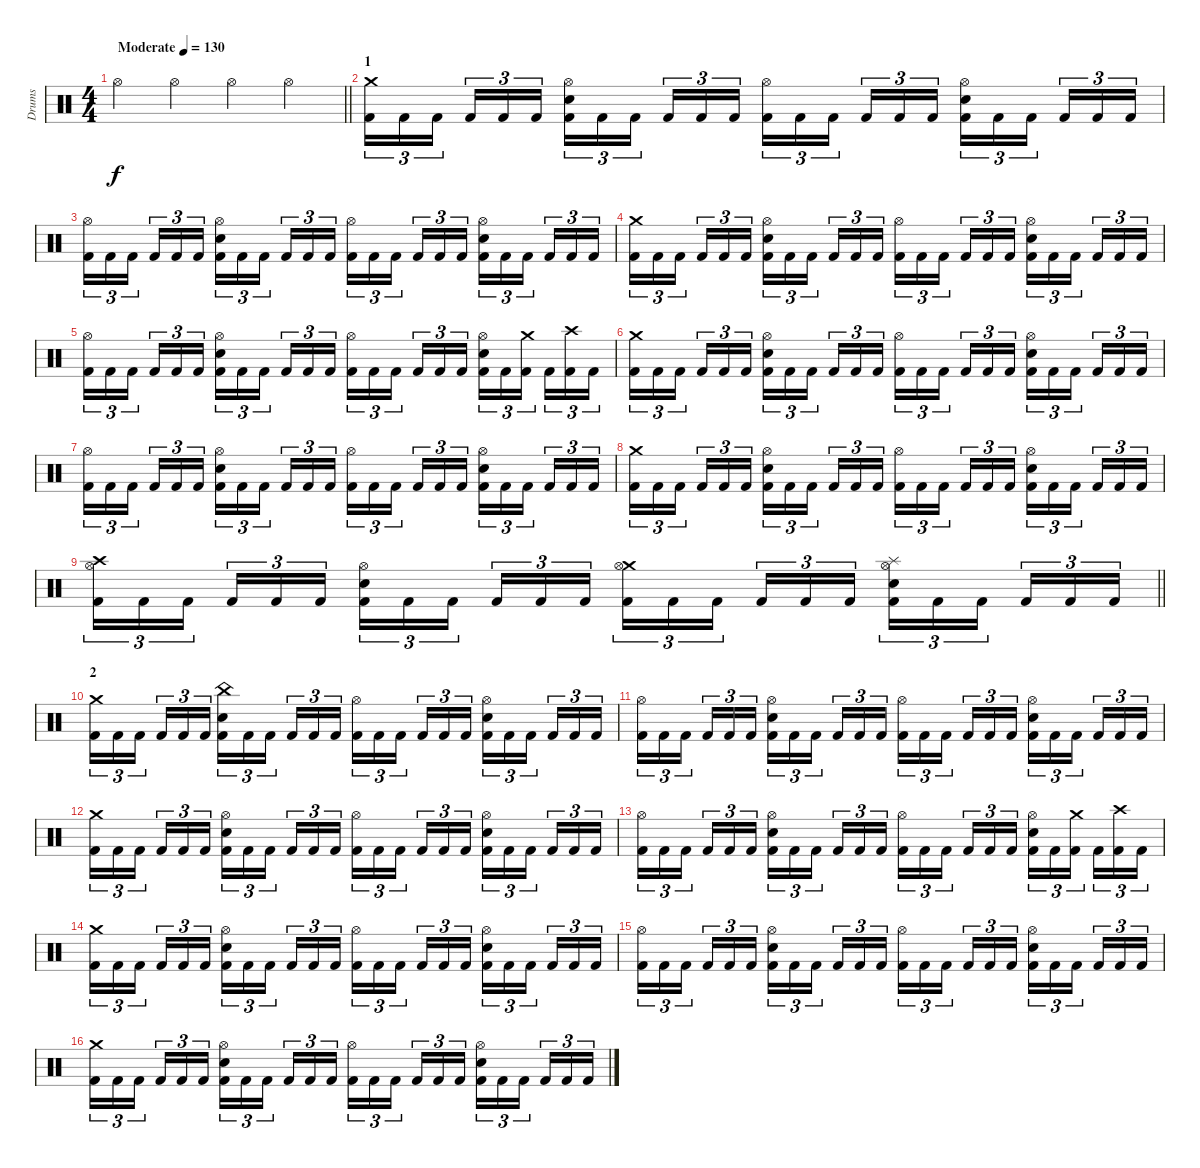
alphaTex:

\track ("Drums" "Drums") {instrument percussion}
\staff {score}
\articulation defaults
\ts (4 4)
\tempo (130 "Moderate")
\clef neutral
\barLineRight lightlight
\ks c "Hi-Hat (open)".4{dy f} "Hi-Hat (open)".4 "Hi-Hat (open)".4 "Hi-Hat (open)".4
|
\section ("" "1")
("Crash medium (hit)" "Kick (hit) 2").16{tu (3 2)} "Kick (hit) 2".16{tu (3 2)} "Kick (hit) 2".16{tu (3 2) beam splitsecondary} "Kick (hit) 2".16{tu (3 2)} "Kick (hit) 2".16{tu (3 2)} "Kick (hit) 2".16{tu (3 2)} ("Hi-Hat (open)" "Snare (hit) 2" "Kick (hit) 2").16{tu (3 2)} "Kick (hit) 2".16{tu (3 2)} "Kick (hit) 2".16{tu (3 2) beam splitsecondary} "Kick (hit) 2".16{tu (3 2)} "Kick (hit) 2".16{tu (3 2)} "Kick (hit) 2".16{tu (3 2)} ("Hi-Hat (open)" "Kick (hit) 2").16{tu (3 2)} "Kick (hit) 2".16{tu (3 2)} "Kick (hit) 2".16{tu (3 2) beam splitsecondary} "Kick (hit) 2".16{tu (3 2)} "Kick (hit) 2".16{tu (3 2)} "Kick (hit) 2".16{tu (3 2)} ("Hi-Hat (open)" "Snare (hit) 2" "Kick (hit) 2").16{tu (3 2)} "Kick (hit) 2".16{tu (3 2)} "Kick (hit) 2".16{tu (3 2) beam splitsecondary} "Kick (hit) 2".16{tu (3 2)} "Kick (hit) 2".16{tu (3 2)} "Kick (hit) 2".16{tu (3 2)} |
("Hi-Hat (open)" "Kick (hit) 2").16{tu (3 2)} "Kick (hit) 2".16{tu (3 2)} "Kick (hit) 2".16{tu (3 2) beam splitsecondary} "Kick (hit) 2".16{tu (3 2)} "Kick (hit) 2".16{tu (3 2)} "Kick (hit) 2".16{tu (3 2)} ("Hi-Hat (open)" "Snare (hit) 2" "Kick (hit) 2").16{tu (3 2)} "Kick (hit) 2".16{tu (3 2)} "Kick (hit) 2".16{tu (3 2) beam splitsecondary} "Kick (hit) 2".16{tu (3 2)} "Kick (hit) 2".16{tu (3 2)} "Kick (hit) 2".16{tu (3 2)} ("Hi-Hat (open)" "Kick (hit) 2").16{tu (3 2)} "Kick (hit) 2".16{tu (3 2)} "Kick (hit) 2".16{tu (3 2) beam splitsecondary} "Kick (hit) 2".16{tu (3 2)} "Kick (hit) 2".16{tu (3 2)} "Kick (hit) 2".16{tu (3 2)} ("Hi-Hat (open)" "Snare (hit) 2" "Kick (hit) 2").16{tu (3 2)} "Kick (hit) 2".16{tu (3 2)} "Kick (hit) 2".16{tu (3 2) beam splitsecondary} "Kick (hit) 2".16{tu (3 2)} "Kick (hit) 2".16{tu (3 2)} "Kick (hit) 2".16{tu (3 2)} |
("Crash medium (hit)" "Kick (hit) 2").16{tu (3 2)} "Kick (hit) 2".16{tu (3 2)} "Kick (hit) 2".16{tu (3 2) beam splitsecondary} "Kick (hit) 2".16{tu (3 2)} "Kick (hit) 2".16{tu (3 2)} "Kick (hit) 2".16{tu (3 2)} ("Hi-Hat (open)" "Snare (hit) 2" "Kick (hit) 2").16{tu (3 2)} "Kick (hit) 2".16{tu (3 2)} "Kick (hit) 2".16{tu (3 2) beam splitsecondary} "Kick (hit) 2".16{tu (3 2)} "Kick (hit) 2".16{tu (3 2)} "Kick (hit) 2".16{tu (3 2)} ("Hi-Hat (open)" "Kick (hit) 2").16{tu (3 2)} "Kick (hit) 2".16{tu (3 2)} "Kick (hit) 2".16{tu (3 2) beam splitsecondary} "Kick (hit) 2".16{tu (3 2)} "Kick (hit) 2".16{tu (3 2)} "Kick (hit) 2".16{tu (3 2)} ("Hi-Hat (open)" "Snare (hit) 2" "Kick (hit) 2").16{tu (3 2)} "Kick (hit) 2".16{tu (3 2)} "Kick (hit) 2".16{tu (3 2) beam splitsecondary} "Kick (hit) 2".16{tu (3 2)} "Kick (hit) 2".16{tu (3 2)} "Kick (hit) 2".16{tu (3 2)} |
("Hi-Hat (open)" "Kick (hit) 2").16{tu (3 2)} "Kick (hit) 2".16{tu (3 2)} "Kick (hit) 2".16{tu (3 2) beam splitsecondary} "Kick (hit) 2".16{tu (3 2)} "Kick (hit) 2".16{tu (3 2)} "Kick (hit) 2".16{tu (3 2)} ("Hi-Hat (open)" "Snare (hit) 2" "Kick (hit) 2").16{tu (3 2)} "Kick (hit) 2".16{tu (3 2)} "Kick (hit) 2".16{tu (3 2) beam splitsecondary} "Kick (hit) 2".16{tu (3 2)} "Kick (hit) 2".16{tu (3 2)} "Kick (hit) 2".16{tu (3 2)} ("Hi-Hat (open)" "Kick (hit) 2").16{tu (3 2)} "Kick (hit) 2".16{tu (3 2)} "Kick (hit) 2".16{tu (3 2) beam splitsecondary} "Kick (hit) 2".16{tu (3 2)} "Kick (hit) 2".16{tu (3 2)} "Kick (hit) 2".16{tu (3 2)} ("Hi-Hat (open)" "Snare (hit) 2" "Kick (hit) 2").16{tu (3 2)} "Kick (hit) 2".16{tu (3 2)} ("Crash medium (hit)" "Kick (hit) 2").16{tu (3 2) beam splitsecondary} "Kick (hit) 2".16{tu (3 2)} ("Crash high (hit)" "Kick (hit) 2").16{tu (3 2)} "Kick (hit) 2".16{tu (3 2)} |
("Crash medium (hit)" "Kick (hit) 2").16{tu (3 2)} "Kick (hit) 2".16{tu (3 2)} "Kick (hit) 2".16{tu (3 2) beam splitsecondary} "Kick (hit) 2".16{tu (3 2)} "Kick (hit) 2".16{tu (3 2)} "Kick (hit) 2".16{tu (3 2)} ("Hi-Hat (open)" "Snare (hit) 2" "Kick (hit) 2").16{tu (3 2)} "Kick (hit) 2".16{tu (3 2)} "Kick (hit) 2".16{tu (3 2) beam splitsecondary} "Kick (hit) 2".16{tu (3 2)} "Kick (hit) 2".16{tu (3 2)} "Kick (hit) 2".16{tu (3 2)} ("Hi-Hat (open)" "Kick (hit) 2").16{tu (3 2)} "Kick (hit) 2".16{tu (3 2)} "Kick (hit) 2".16{tu (3 2) beam splitsecondary} "Kick (hit) 2".16{tu (3 2)} "Kick (hit) 2".16{tu (3 2)} "Kick (hit) 2".16{tu (3 2)} ("Hi-Hat (open)" "Snare (hit) 2" "Kick (hit) 2").16{tu (3 2)} "Kick (hit) 2".16{tu (3 2)} "Kick (hit) 2".16{tu (3 2) beam splitsecondary} "Kick (hit) 2".16{tu (3 2)} "Kick (hit) 2".16{tu (3 2)} "Kick (hit) 2".16{tu (3 2)} |
("Hi-Hat (open)" "Kick (hit) 2").16{tu (3 2)} "Kick (hit) 2".16{tu (3 2)} "Kick (hit) 2".16{tu (3 2) beam splitsecondary} "Kick (hit) 2".16{tu (3 2)} "Kick (hit) 2".16{tu (3 2)} "Kick (hit) 2".16{tu (3 2)} ("Hi-Hat (open)" "Snare (hit) 2" "Kick (hit) 2").16{tu (3 2)} "Kick (hit) 2".16{tu (3 2)} "Kick (hit) 2".16{tu (3 2) beam splitsecondary} "Kick (hit) 2".16{tu (3 2)} "Kick (hit) 2".16{tu (3 2)} "Kick (hit) 2".16{tu (3 2)} ("Hi-Hat (open)" "Kick (hit) 2").16{tu (3 2)} "Kick (hit) 2".16{tu (3 2)} "Kick (hit) 2".16{tu (3 2) beam splitsecondary} "Kick (hit) 2".16{tu (3 2)} "Kick (hit) 2".16{tu (3 2)} "Kick (hit) 2".16{tu (3 2)} ("Hi-Hat (open)" "Snare (hit) 2" "Kick (hit) 2").16{tu (3 2)} "Kick (hit) 2".16{tu (3 2)} "Kick (hit) 2".16{tu (3 2) beam splitsecondary} "Kick (hit) 2".16{tu (3 2)} "Kick (hit) 2".16{tu (3 2)} "Kick (hit) 2".16{tu (3 2)} |
("Crash medium (hit)" "Kick (hit) 2").16{tu (3 2)} "Kick (hit) 2".16{tu (3 2)} "Kick (hit) 2".16{tu (3 2) beam splitsecondary} "Kick (hit) 2".16{tu (3 2)} "Kick (hit) 2".16{tu (3 2)} "Kick (hit) 2".16{tu (3 2)} ("Hi-Hat (open)" "Snare (hit) 2" "Kick (hit) 2").16{tu (3 2)} "Kick (hit) 2".16{tu (3 2)} "Kick (hit) 2".16{tu (3 2) beam splitsecondary} "Kick (hit) 2".16{tu (3 2)} "Kick (hit) 2".16{tu (3 2)} "Kick (hit) 2".16{tu (3 2)} ("Hi-Hat (open)" "Kick (hit) 2").16{tu (3 2)} "Kick (hit) 2".16{tu (3 2)} "Kick (hit) 2".16{tu (3 2) beam splitsecondary} "Kick (hit) 2".16{tu (3 2)} "Kick (hit) 2".16{tu (3 2)} "Kick (hit) 2".16{tu (3 2)} ("Hi-Hat (open)" "Snare (hit) 2" "Kick (hit) 2").16{tu (3 2)} "Kick (hit) 2".16{tu (3 2)} "Kick (hit) 2".16{tu (3 2) beam splitsecondary} "Kick (hit) 2".16{tu (3 2)} "Kick (hit) 2".16{tu (3 2)} "Kick (hit) 2".16{tu (3 2)} |
\barLineRight lightlight
("Crash high (hit)" "Hi-Hat (open)" "Kick (hit) 2").16{tu (3 2)} "Kick (hit) 2".16{tu (3 2)} "Kick (hit) 2".16{tu (3 2) beam splitsecondary} "Kick (hit) 2".16{tu (3 2)} "Kick (hit) 2".16{tu (3 2)} "Kick (hit) 2".16{tu (3 2)} ("Hi-Hat (open)" "Snare (hit) 2" "Kick (hit) 2").16{tu (3 2)} "Kick (hit) 2".16{tu (3 2)} "Kick (hit) 2".16{tu (3 2) beam splitsecondary} "Kick (hit) 2".16{tu (3 2)} "Kick (hit) 2".16{tu (3 2)} "Kick (hit) 2".16{tu (3 2)} ("Crash medium (hit)" "Hi-Hat (open)" "Kick (hit) 2").16{tu (3 2)} "Kick (hit) 2".16{tu (3 2)} "Kick (hit) 2".16{tu (3 2) beam splitsecondary} "Kick (hit) 2".16{tu (3 2)} "Kick (hit) 2".16{tu (3 2)} "Kick (hit) 2".16{tu (3 2)} ("Splash (hit)" "Hi-Hat (open)" "Snare (hit) 2" "Kick (hit) 2").16{tu (3 2)} "Kick (hit) 2".16{tu (3 2)} "Kick (hit) 2".16{tu (3 2) beam splitsecondary} "Kick (hit) 2".16{tu (3 2)} "Kick (hit) 2".16{tu (3 2)} "Kick (hit) 2".16{tu (3 2)} |
\section ("" "2")
("Crash medium (hit)" "Kick (hit) 2").16{tu (3 2)} "Kick (hit) 2".16{tu (3 2)} "Kick (hit) 2".16{tu (3 2) beam splitsecondary} "Kick (hit) 2".16{tu (3 2)} "Kick (hit) 2".16{tu (3 2)} "Kick (hit) 2".16{tu (3 2)} ("China (hit)" "Snare (hit) 2" "Kick (hit) 2").16{tu (3 2)} "Kick (hit) 2".16{tu (3 2)} "Kick (hit) 2".16{tu (3 2) beam splitsecondary} "Kick (hit) 2".16{tu (3 2)} "Kick (hit) 2".16{tu (3 2)} "Kick (hit) 2".16{tu (3 2)} ("Hi-Hat (open)" "Kick (hit) 2").16{tu (3 2)} "Kick (hit) 2".16{tu (3 2)} "Kick (hit) 2".16{tu (3 2) beam splitsecondary} "Kick (hit) 2".16{tu (3 2)} "Kick (hit) 2".16{tu (3 2)} "Kick (hit) 2".16{tu (3 2)} ("Hi-Hat (open)" "Snare (hit) 2" "Kick (hit) 2").16{tu (3 2)} "Kick (hit) 2".16{tu (3 2)} "Kick (hit) 2".16{tu (3 2) beam splitsecondary} "Kick (hit) 2".16{tu (3 2)} "Kick (hit) 2".16{tu (3 2)} "Kick (hit) 2".16{tu (3 2)} |
("Hi-Hat (open)" "Kick (hit) 2").16{tu (3 2)} "Kick (hit) 2".16{tu (3 2)} "Kick (hit) 2".16{tu (3 2) beam splitsecondary} "Kick (hit) 2".16{tu (3 2)} "Kick (hit) 2".16{tu (3 2)} "Kick (hit) 2".16{tu (3 2)} ("Hi-Hat (open)" "Snare (hit) 2" "Kick (hit) 2").16{tu (3 2)} "Kick (hit) 2".16{tu (3 2)} "Kick (hit) 2".16{tu (3 2) beam splitsecondary} "Kick (hit) 2".16{tu (3 2)} "Kick (hit) 2".16{tu (3 2)} "Kick (hit) 2".16{tu (3 2)} ("Hi-Hat (open)" "Kick (hit) 2").16{tu (3 2)} "Kick (hit) 2".16{tu (3 2)} "Kick (hit) 2".16{tu (3 2) beam splitsecondary} "Kick (hit) 2".16{tu (3 2)} "Kick (hit) 2".16{tu (3 2)} "Kick (hit) 2".16{tu (3 2)} ("Hi-Hat (open)" "Snare (hit) 2" "Kick (hit) 2").16{tu (3 2)} "Kick (hit) 2".16{tu (3 2)} "Kick (hit) 2".16{tu (3 2) beam splitsecondary} "Kick (hit) 2".16{tu (3 2)} "Kick (hit) 2".16{tu (3 2)} "Kick (hit) 2".16{tu (3 2)} |
("Crash medium (hit)" "Kick (hit) 2").16{tu (3 2)} "Kick (hit) 2".16{tu (3 2)} "Kick (hit) 2".16{tu (3 2) beam splitsecondary} "Kick (hit) 2".16{tu (3 2)} "Kick (hit) 2".16{tu (3 2)} "Kick (hit) 2".16{tu (3 2)} ("Hi-Hat (open)" "Snare (hit) 2" "Kick (hit) 2").16{tu (3 2)} "Kick (hit) 2".16{tu (3 2)} "Kick (hit) 2".16{tu (3 2) beam splitsecondary} "Kick (hit) 2".16{tu (3 2)} "Kick (hit) 2".16{tu (3 2)} "Kick (hit) 2".16{tu (3 2)} ("Hi-Hat (open)" "Kick (hit) 2").16{tu (3 2)} "Kick (hit) 2".16{tu (3 2)} "Kick (hit) 2".16{tu (3 2) beam splitsecondary} "Kick (hit) 2".16{tu (3 2)} "Kick (hit) 2".16{tu (3 2)} "Kick (hit) 2".16{tu (3 2)} ("Hi-Hat (open)" "Snare (hit) 2" "Kick (hit) 2").16{tu (3 2)} "Kick (hit) 2".16{tu (3 2)} "Kick (hit) 2".16{tu (3 2) beam splitsecondary} "Kick (hit) 2".16{tu (3 2)} "Kick (hit) 2".16{tu (3 2)} "Kick (hit) 2".16{tu (3 2)} |
("Hi-Hat (open)" "Kick (hit) 2").16{tu (3 2)} "Kick (hit) 2".16{tu (3 2)} "Kick (hit) 2".16{tu (3 2) beam splitsecondary} "Kick (hit) 2".16{tu (3 2)} "Kick (hit) 2".16{tu (3 2)} "Kick (hit) 2".16{tu (3 2)} ("Hi-Hat (open)" "Snare (hit) 2" "Kick (hit) 2").16{tu (3 2)} "Kick (hit) 2".16{tu (3 2)} "Kick (hit) 2".16{tu (3 2) beam splitsecondary} "Kick (hit) 2".16{tu (3 2)} "Kick (hit) 2".16{tu (3 2)} "Kick (hit) 2".16{tu (3 2)} ("Hi-Hat (open)" "Kick (hit) 2").16{tu (3 2)} "Kick (hit) 2".16{tu (3 2)} "Kick (hit) 2".16{tu (3 2) beam splitsecondary} "Kick (hit) 2".16{tu (3 2)} "Kick (hit) 2".16{tu (3 2)} "Kick (hit) 2".16{tu (3 2)} ("Hi-Hat (open)" "Snare (hit) 2" "Kick (hit) 2").16{tu (3 2)} "Kick (hit) 2".16{tu (3 2)} ("Crash medium (hit)" "Kick (hit) 2").16{tu (3 2) beam splitsecondary} "Kick (hit) 2".16{tu (3 2)} ("Crash high (hit)" "Kick (hit) 2").16{tu (3 2)} "Kick (hit) 2".16{tu (3 2)} |
("Crash medium (hit)" "Kick (hit) 2").16{tu (3 2)} "Kick (hit) 2".16{tu (3 2)} "Kick (hit) 2".16{tu (3 2) beam splitsecondary} "Kick (hit) 2".16{tu (3 2)} "Kick (hit) 2".16{tu (3 2)} "Kick (hit) 2".16{tu (3 2)} ("Hi-Hat (open)" "Snare (hit) 2" "Kick (hit) 2").16{tu (3 2)} "Kick (hit) 2".16{tu (3 2)} "Kick (hit) 2".16{tu (3 2) beam splitsecondary} "Kick (hit) 2".16{tu (3 2)} "Kick (hit) 2".16{tu (3 2)} "Kick (hit) 2".16{tu (3 2)} ("Hi-Hat (open)" "Kick (hit) 2").16{tu (3 2)} "Kick (hit) 2".16{tu (3 2)} "Kick (hit) 2".16{tu (3 2) beam splitsecondary} "Kick (hit) 2".16{tu (3 2)} "Kick (hit) 2".16{tu (3 2)} "Kick (hit) 2".16{tu (3 2)} ("Hi-Hat (open)" "Snare (hit) 2" "Kick (hit) 2").16{tu (3 2)} "Kick (hit) 2".16{tu (3 2)} "Kick (hit) 2".16{tu (3 2) beam splitsecondary} "Kick (hit) 2".16{tu (3 2)} "Kick (hit) 2".16{tu (3 2)} "Kick (hit) 2".16{tu (3 2)} |
("Hi-Hat (open)" "Kick (hit) 2").16{tu (3 2)} "Kick (hit) 2".16{tu (3 2)} "Kick (hit) 2".16{tu (3 2) beam splitsecondary} "Kick (hit) 2".16{tu (3 2)} "Kick (hit) 2".16{tu (3 2)} "Kick (hit) 2".16{tu (3 2)} ("Hi-Hat (open)" "Snare (hit) 2" "Kick (hit) 2").16{tu (3 2)} "Kick (hit) 2".16{tu (3 2)} "Kick (hit) 2".16{tu (3 2) beam splitsecondary} "Kick (hit) 2".16{tu (3 2)} "Kick (hit) 2".16{tu (3 2)} "Kick (hit) 2".16{tu (3 2)} ("Hi-Hat (open)" "Kick (hit) 2").16{tu (3 2)} "Kick (hit) 2".16{tu (3 2)} "Kick (hit) 2".16{tu (3 2) beam splitsecondary} "Kick (hit) 2".16{tu (3 2)} "Kick (hit) 2".16{tu (3 2)} "Kick (hit) 2".16{tu (3 2)} ("Hi-Hat (open)" "Snare (hit) 2" "Kick (hit) 2").16{tu (3 2)} "Kick (hit) 2".16{tu (3 2)} "Kick (hit) 2".16{tu (3 2) beam splitsecondary} "Kick (hit) 2".16{tu (3 2)} "Kick (hit) 2".16{tu (3 2)} "Kick (hit) 2".16{tu (3 2)} |
("Crash medium (hit)" "Kick (hit) 2").16{tu (3 2)} "Kick (hit) 2".16{tu (3 2)} "Kick (hit) 2".16{tu (3 2) beam splitsecondary} "Kick (hit) 2".16{tu (3 2)} "Kick (hit) 2".16{tu (3 2)} "Kick (hit) 2".16{tu (3 2)} ("Hi-Hat (open)" "Snare (hit) 2" "Kick (hit) 2").16{tu (3 2)} "Kick (hit) 2".16{tu (3 2)} "Kick (hit) 2".16{tu (3 2) beam splitsecondary} "Kick (hit) 2".16{tu (3 2)} "Kick (hit) 2".16{tu (3 2)} "Kick (hit) 2".16{tu (3 2)} ("Hi-Hat (open)" "Kick (hit) 2").16{tu (3 2)} "Kick (hit) 2".16{tu (3 2)} "Kick (hit) 2".16{tu (3 2) beam splitsecondary} "Kick (hit) 2".16{tu (3 2)} "Kick (hit) 2".16{tu (3 2)} "Kick (hit) 2".16{tu (3 2)} ("Hi-Hat (open)" "Snare (hit) 2" "Kick (hit) 2").16{tu (3 2)} "Kick (hit) 2".16{tu (3 2)} "Kick (hit) 2".16{tu (3 2) beam splitsecondary} "Kick (hit) 2".16{tu (3 2)} "Kick (hit) 2".16{tu (3 2)} "Kick (hit) 2".16{tu (3 2)}
